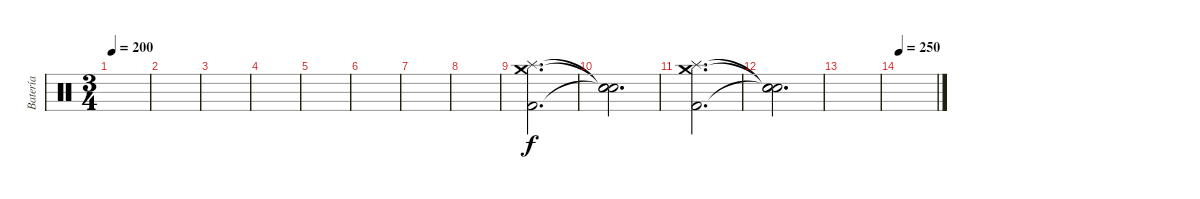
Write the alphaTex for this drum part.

\track ("Batería" "Batería") {instrument percussion}
\staff {score}
\articulation defaults
\ts (3 4)
\tempo 200
\clef neutral
\ks c
|
|
|
|
|
|
|
|
("Kick (hit) 2" "Crash medium (hit)" "Splash (hit)").2{d} |
("Snare (hit)"{t} "Snare (hit)"{t} "Snare (hit)"{t}).2{d} |
("Kick (hit) 2" "Crash medium (hit)" "Splash (hit)").2{d} |
("Snare (hit)"{t} "Snare (hit)"{t} "Snare (hit)"{t}).2{d} |
|
\tempo 250
